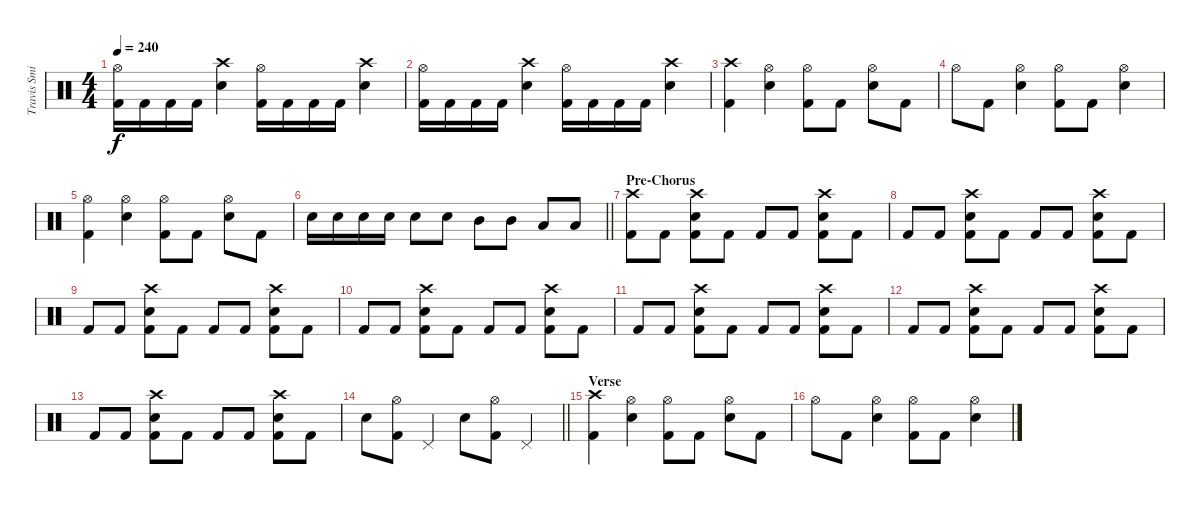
\track ("Travis Smith" "Travis Smi") {instrument percussion}
\staff {score}
\articulation defaults
\ts (4 4)
\tempo 240
\clef neutral
\ks c
("Kick (hit) 2" "Hi-Hat (open)").16{dy f} "Kick (hit) 2".16 "Kick (hit) 2".16 "Kick (hit) 2".16 ("Snare (hit) 2" "Crash high (hit)").4 ("Kick (hit) 2" "Hi-Hat (open)").16 "Kick (hit) 2".16 "Kick (hit) 2".16 "Kick (hit) 2".16 ("Snare (hit) 2" "Crash high (hit)").4 |
("Kick (hit) 2" "Hi-Hat (open)").16 "Kick (hit) 2".16 "Kick (hit) 2".16 "Kick (hit) 2".16 ("Snare (hit) 2" "Crash high (hit)").4 ("Kick (hit) 2" "Hi-Hat (open)").16 "Kick (hit) 2".16 "Kick (hit) 2".16 "Kick (hit) 2".16 ("Snare (hit) 2" "Crash high (hit)").4 |
("Kick (hit) 2" "Crash high (hit)").4 ("Snare (hit) 2" "Hi-Hat (open)").4 ("Kick (hit) 2" "Hi-Hat (open)").8 "Kick (hit) 2".8 ("Snare (hit) 2" "Hi-Hat (open)").8 "Kick (hit) 2".8 |
"Hi-Hat (open)".8 "Kick (hit) 2".8 ("Snare (hit) 2" "Hi-Hat (open)").4 ("Kick (hit) 2" "Hi-Hat (open)").8 "Kick (hit) 2".8 ("Snare (hit) 2" "Hi-Hat (open)").4 |
("Kick (hit) 2" "Hi-Hat (open)").4 ("Snare (hit) 2" "Hi-Hat (open)").4 ("Kick (hit) 2" "Hi-Hat (open)").8 "Kick (hit) 2".8 ("Snare (hit) 2" "Hi-Hat (open)").8 "Kick (hit) 2".8 |
\barLineRight lightlight "Snare (hit) 2".16 "Snare (hit) 2".16 "Snare (hit) 2".16 "Snare (hit) 2".16 "Snare (hit) 2".8 "Snare (hit) 2".8 "Mid Tom (hit)".8 "Mid Tom (hit)".8 "Low Tom (hit)".8 "Low Tom (hit)".8
|
\section ("" "Pre-Chorus")
("Kick (hit) 2" "Crash high (hit)").8 "Kick (hit) 2".8 ("Kick (hit) 2" "Snare (hit) 2" "Crash high (hit)").8 "Kick (hit) 2".8 "Kick (hit) 2".8 "Kick (hit) 2".8 ("Kick (hit) 2" "Snare (hit) 2" "Crash high (hit)").8 "Kick (hit) 2".8 |
"Kick (hit) 2".8 "Kick (hit) 2".8 ("Kick (hit) 2" "Snare (hit) 2" "Crash high (hit)").8 "Kick (hit) 2".8 "Kick (hit) 2".8 "Kick (hit) 2".8 ("Kick (hit) 2" "Snare (hit) 2" "Crash high (hit)").8 "Kick (hit) 2".8 |
"Kick (hit) 2".8 "Kick (hit) 2".8 ("Kick (hit) 2" "Snare (hit) 2" "Crash high (hit)").8 "Kick (hit) 2".8 "Kick (hit) 2".8 "Kick (hit) 2".8 ("Kick (hit) 2" "Snare (hit) 2" "Crash high (hit)").8 "Kick (hit) 2".8 |
"Kick (hit) 2".8 "Kick (hit) 2".8 ("Kick (hit) 2" "Snare (hit) 2" "Crash high (hit)").8 "Kick (hit) 2".8 "Kick (hit) 2".8 "Kick (hit) 2".8 ("Kick (hit) 2" "Snare (hit) 2" "Crash high (hit)").8 "Kick (hit) 2".8 |
"Kick (hit) 2".8 "Kick (hit) 2".8 ("Kick (hit) 2" "Snare (hit) 2" "Crash high (hit)").8 "Kick (hit) 2".8 "Kick (hit) 2".8 "Kick (hit) 2".8 ("Kick (hit) 2" "Snare (hit) 2" "Crash high (hit)").8 "Kick (hit) 2".8 |
"Kick (hit) 2".8 "Kick (hit) 2".8 ("Kick (hit) 2" "Snare (hit) 2" "Crash high (hit)").8 "Kick (hit) 2".8 "Kick (hit) 2".8 "Kick (hit) 2".8 ("Kick (hit) 2" "Snare (hit) 2" "Crash high (hit)").8 "Kick (hit) 2".8 |
"Kick (hit) 2".8 "Kick (hit) 2".8 ("Kick (hit) 2" "Snare (hit) 2" "Crash high (hit)").8 "Kick (hit) 2".8 "Kick (hit) 2".8 "Kick (hit) 2".8 ("Kick (hit) 2" "Snare (hit) 2" "Crash high (hit)").8 "Kick (hit) 2".8 |
\barLineRight lightlight "Snare (hit) 2".8
("Kick (hit) 2" "Hi-Hat (open)").8 "Pedal Hi-Hat (hit)".4 "Snare (hit) 2".8 ("Kick (hit) 2" "Hi-Hat (open)").8 "Pedal Hi-Hat (hit)".4 |
\section ("" "Verse")
("Kick (hit) 2" "Crash high (hit)").4 ("Snare (hit) 2" "Hi-Hat (open)").4 ("Kick (hit) 2" "Hi-Hat (open)").8 "Kick (hit) 2".8 ("Snare (hit) 2" "Hi-Hat (open)").8 "Kick (hit) 2".8 |
"Hi-Hat (open)".8 "Kick (hit) 2".8 ("Snare (hit) 2" "Hi-Hat (open)").4 ("Kick (hit) 2" "Hi-Hat (open)").8 "Kick (hit) 2".8 ("Snare (hit) 2" "Hi-Hat (open)").4
